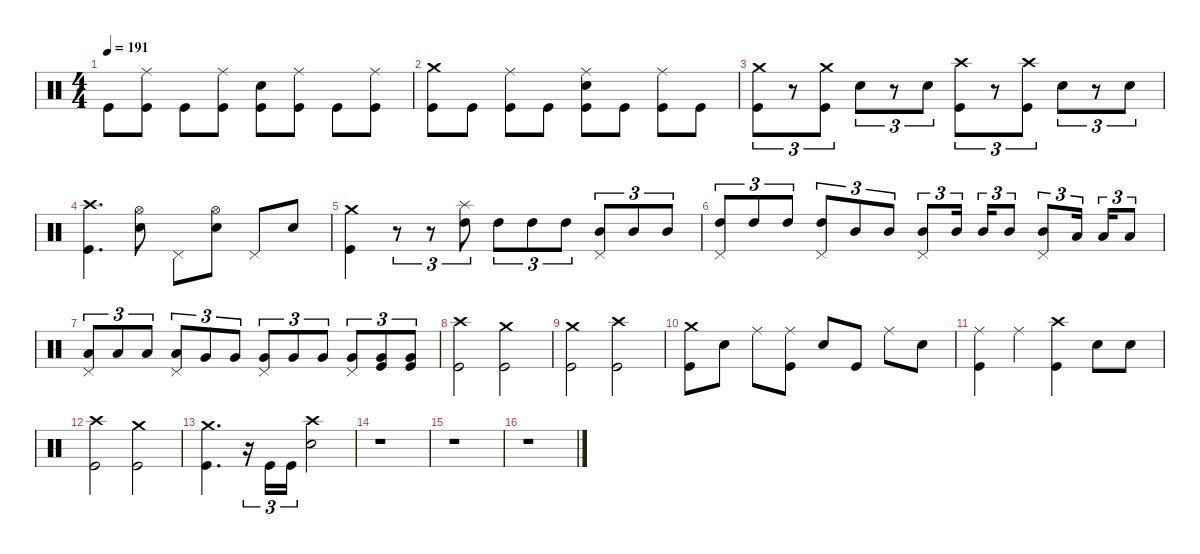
\defaultSystemsLayout 4
\hideDynamics
\bracketExtendMode nobrackets
\singleTrackTrackNamePolicy hidden
\multiTrackTrackNamePolicy hidden
\firstSystemTrackNameMode fullname
\firstSystemTrackNameOrientation horizontal
\otherSystemsTrackNameOrientation horizontal
\track ("Drumkit" "drm.") {instrument percussion}
\staff {score}
\articulation defaults
\ts (4 4)
\tempo 191
\clef neutral
\ks c "Kick (hit)".8{dy f beam Down}
("Ride (middle)" "Kick (hit)").8{beam Down} "Kick (hit)".8{beam Down} ("Ride (middle)" "Kick (hit)").8{beam Down} ("Snare (hit) 2" "Kick (hit)").8{beam Down} ("Ride (middle)" "Kick (hit)").8{beam Down} "Kick (hit)".8{beam Down} ("Ride (middle)" "Kick (hit)").8{beam Down} |
("Crash medium (hit)" "Kick (hit)").8{beam Down} "Kick (hit)".8{beam Down} ("Ride (middle)" "Kick (hit)").8{dy mf beam Down} "Kick (hit)".8{dy f beam Down} ("Ride (middle)" "Snare (hit) 2" "Kick (hit)").8{dy mf beam Down} "Kick (hit)".8{dy f beam Down} ("Ride (middle)" "Kick (hit)").8{dy mf beam Down} "Kick (hit)".8{dy f beam Down} |
("Crash medium (hit)" "Kick (hit)").8{tu (3 2) dy mf beam Down} r.8{tu (3 2) beam Down} ("Crash medium (hit)" "Kick (hit)").8{tu (3 2) beam Down} "Snare (hit) 2".8{tu (3 2) beam Down} r.8{tu (3 2) beam Down} "Snare (hit) 2".8{tu (3 2) beam Down} ("Crash high (hit)" "Kick (hit)").8{tu (3 2) beam Down} r.8{tu (3 2) beam Down} ("Crash high (hit)" "Kick (hit)").8{tu (3 2) beam Down} "Snare (hit) 2".8{tu (3 2) beam Down} r.8{tu (3 2) beam Down} "Snare (hit) 2".8{tu (3 2) beam Down} |
("Crash high (hit)" "Kick (hit)").4{d beam Down} ("Hi-Hat (open)" "Snare (hit) 2").8{beam Down} "Pedal Hi-Hat (hit)".8{beam Down} ("Hi-Hat (open)" "Snare (hit) 2").8{beam Down} "Pedal Hi-Hat (hit)".8{beam Up} "Snare (hit) 2".8{beam Up} |
("Crash medium (hit)" "Kick (hit)").4{beam Down} r.8{tu (3 2) beam Down} r.8{tu (3 2) beam Down} ("Splash (hit)" "High Tom (hit)").8{tu (3 2) dy f beam Down} "High Tom (hit)".8{tu (3 2) dy mf beam Down} "High Tom (hit)".8{tu (3 2) beam Down} "High Tom (hit)".8{tu (3 2) beam Down} ("Pedal Hi-Hat (hit)" "Mid Tom (hit)").8{tu (3 2) beam Up} "Mid Tom (hit)".8{tu (3 2) beam Up} "Mid Tom (hit)".8{tu (3 2) beam Up} |
("Pedal Hi-Hat (hit)" "High Tom (hit)").8{tu (3 2) beam Up} "High Tom (hit)".8{tu (3 2) dy f beam Up} "High Tom (hit)".8{tu (3 2) beam Up} ("Pedal Hi-Hat (hit)" "High Tom (hit)").8{tu (3 2) dy mf beam Up} "Mid Tom (hit)".8{tu (3 2) dy f beam Up} "Mid Tom (hit)".8{tu (3 2) beam Up} ("Pedal Hi-Hat (hit)" "Mid Tom (hit)").8{tu (3 2) dy mf beam Up} "Mid Tom (hit)".16{tu (3 2) dy f beam Up} "Mid Tom (hit)".16{tu (3 2) beam Up} "Mid Tom (hit)".8{tu (3 2) beam Up} ("Pedal Hi-Hat (hit)" "Mid Tom (hit)").8{tu (3 2) dy mf beam Up} "Low Tom (hit)".16{tu (3 2) dy f beam Up} "Low Tom (hit)".16{tu (3 2) beam Up} "Low Tom (hit)".8{tu (3 2) beam Up} |
("Pedal Hi-Hat (hit)" "Low Tom (hit)").8{tu (3 2) dy mf beam Up} "Low Tom (hit)".8{tu (3 2) beam Up} "Low Tom (hit)".8{tu (3 2) dy f beam Up} ("Pedal Hi-Hat (hit)" "Low Tom (hit)").8{tu (3 2) dy mf beam Up} "Very Low Tom (hit)".8{tu (3 2) dy f beam Up} "Very Low Tom (hit)".8{tu (3 2) beam Up} ("Pedal Hi-Hat (hit)" "Very Low Tom (hit)").8{tu (3 2) beam Up} "Very Low Tom (hit)".8{tu (3 2) dy ff beam Up} "Very Low Tom (hit)".8{tu (3 2) beam Up} ("Pedal Hi-Hat (hit)" "Very Low Tom (hit)").8{tu (3 2) beam Up} ("Very Low Tom (hit)" "Kick (hit)").8{tu (3 2) dy fff beam Up} ("Very Low Tom (hit)" "Kick (hit)").8{tu (3 2) beam Up} |
("Kick (hit)" "Crash high (hit)").2{dy f beam Down} ("Crash medium (hit)" "Kick (hit)").2{beam Down} |
("Kick (hit)" "Crash medium (hit)").2{beam Down} ("Crash high (hit)" "Kick (hit)").2{beam Down} |
("Kick (hit)" "Crash medium (hit)").8{beam Down} "Snare (hit) 2".8{dy mp beam Down} "Ride (middle)".8{dy f beam Down} ("Ride (middle)" "Kick (hit)").8{beam Down} "Snare (hit) 2".8{beam Up} "Kick (hit)".8{beam Up} "Ride (middle)".8{beam Down} "Snare (hit) 2".8{beam Down} |
("Kick (hit)" "Ride (middle)").4{beam Down} "Ride (middle)".4{beam Down} ("Kick (hit)" "Crash high (hit)").4{beam Down} "Snare (hit) 2".8{beam Down} "Snare (hit) 2".8{beam Down} |
("Kick (hit)" "Crash high (hit)").2{beam Down} ("Crash medium (hit)" "Kick (hit)").2{beam Down} |
("Kick (hit)" "Crash medium (hit)").4{d beam Down} r.16{tu (3 2) beam Down} "Kick (hit)".16{tu (3 2) dy fff beam Up} "Kick (hit)".16{tu (3 2) beam Up} ("Crash high (hit)" "Snare (hit) 2").2{dy ff beam Down} |
r.1{beam Down} |
r.1{beam Down} |
r.1{beam Down}
